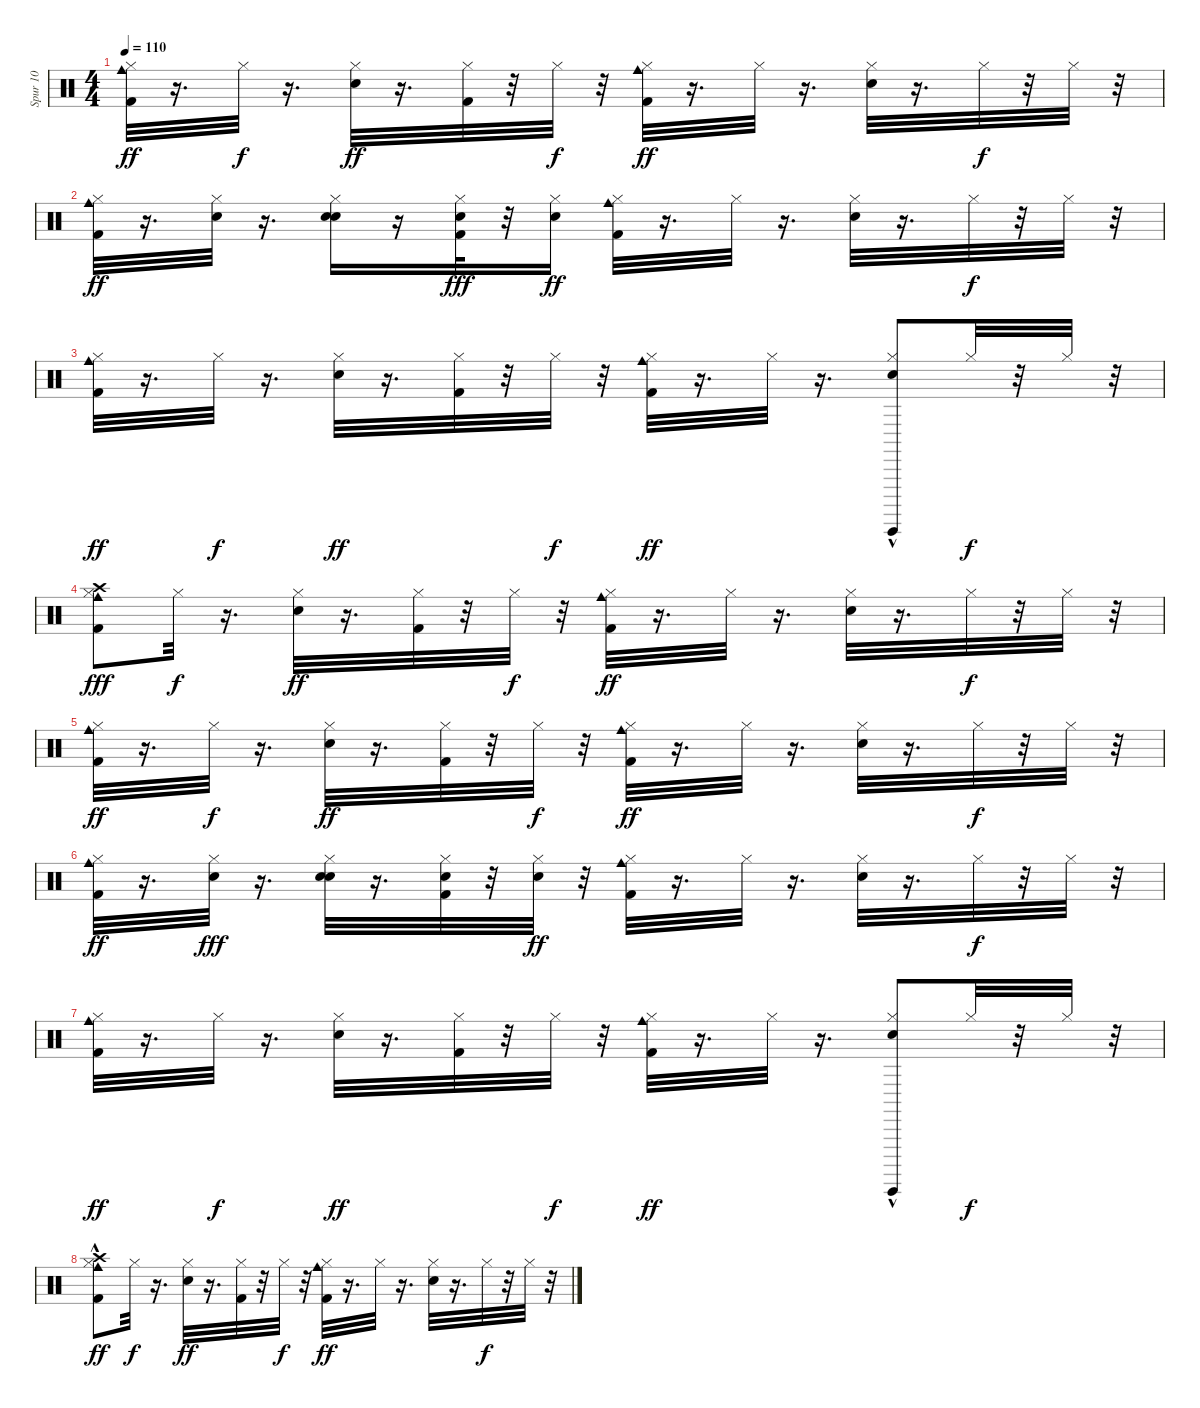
\track ("Spur 10" "Spur 10") {instrument percussion}
\staff {score}
\articulation defaults
\ts (4 4)
\tempo 110
\clef neutral
\ks c
("Kick (hit) 2" "Cowbell medium (hit)" "Hi-Hat (closed)").32{dy ff} r.16{d} "Hi-Hat (closed)".32{dy f} r.16{d} ("Snare (hit) 2" "Hi-Hat (closed)").32{dy ff} r.16{d} ("Kick (hit) 2" "Hi-Hat (closed)").32 r.32 "Hi-Hat (closed)".32{dy f} r.32 ("Kick (hit) 2" "Cowbell medium (hit)" "Hi-Hat (closed)").32{dy ff} r.16{d} "Hi-Hat (closed)".32 r.16{d} ("Snare (hit) 2" "Hi-Hat (closed)").32 r.16{d} "Hi-Hat (closed)".32{dy f} r.32 "Hi-Hat (closed)".32 r.32 |
("Kick (hit) 2" "Cowbell medium (hit)" "Hi-Hat (closed)").32{dy ff} r.16{d} ("Hi-Hat (closed)" "Hand Clap (hit)").32 r.16{d} ("Snare (hit) 2" "Hi-Hat (closed)" "Hand Clap (hit)").16 r.16 ("Kick (hit) 2" "Hi-Hat (closed)" "Hand Clap (hit)").32{dy fff} r.32 ("Hand Clap (hit)" "Hi-Hat (closed)").16{dy ff} ("Kick (hit) 2" "Cowbell medium (hit)" "Hi-Hat (closed)").32 r.16{d} "Hi-Hat (closed)".32 r.16{d} ("Snare (hit) 2" "Hi-Hat (closed)").32 r.16{d} "Hi-Hat (closed)".32{dy f} r.32 "Hi-Hat (closed)".32 r.32 |
("Kick (hit) 2" "Cowbell medium (hit)" "Hi-Hat (closed)").32{dy ff} r.16{d} "Hi-Hat (closed)".32{dy f} r.16{d} ("Snare (hit) 2" "Hi-Hat (closed)").32{dy ff} r.16{d} ("Kick (hit) 2" "Hi-Hat (closed)").32 r.32 "Hi-Hat (closed)".32{dy f} r.32 ("Kick (hit) 2" "Cowbell medium (hit)" "Hi-Hat (closed)").32{dy ff} r.16{d} "Hi-Hat (closed)".32 r.16{d} ("Snare (hit) 2" "Hi-Hat (closed)" "Guiro (hit)"{hac}).8 "Hi-Hat (closed)".32{dy f} r.32 "Hi-Hat (closed)".32 r.32 |
("Kick (hit) 2" "Cowbell medium (hit)" "Hi-Hat (closed)" "Crash high (hit)").8{dy fff} "Hi-Hat (closed)".32{dy f} r.16{d} ("Snare (hit) 2" "Hi-Hat (closed)").32{dy ff} r.16{d} ("Kick (hit) 2" "Hi-Hat (closed)").32 r.32 "Hi-Hat (closed)".32{dy f} r.32 ("Kick (hit) 2" "Cowbell medium (hit)" "Hi-Hat (closed)").32{dy ff} r.16{d} "Hi-Hat (closed)".32 r.16{d} ("Snare (hit) 2" "Hi-Hat (closed)").32 r.16{d} "Hi-Hat (closed)".32{dy f} r.32 "Hi-Hat (closed)".32 r.32 |
("Kick (hit) 2" "Cowbell medium (hit)" "Hi-Hat (closed)").32{dy ff} r.16{d} "Hi-Hat (closed)".32{dy f} r.16{d} ("Snare (hit) 2" "Hi-Hat (closed)").32{dy ff} r.16{d} ("Kick (hit) 2" "Hi-Hat (closed)").32 r.32 "Hi-Hat (closed)".32{dy f} r.32 ("Kick (hit) 2" "Cowbell medium (hit)" "Hi-Hat (closed)").32{dy ff} r.16{d} "Hi-Hat (closed)".32 r.16{d} ("Snare (hit) 2" "Hi-Hat (closed)").32 r.16{d} "Hi-Hat (closed)".32{dy f} r.32 "Hi-Hat (closed)".32 r.32 |
("Kick (hit) 2" "Cowbell medium (hit)" "Hi-Hat (closed)").32{dy ff} r.16{d} ("Hi-Hat (closed)" "Hand Clap (hit)").32{dy fff} r.16{d} ("Snare (hit) 2" "Hi-Hat (closed)" "Hand Clap (hit)").32 r.16{d} ("Kick (hit) 2" "Hi-Hat (closed)" "Hand Clap (hit)").32 r.32 ("Hand Clap (hit)" "Hi-Hat (closed)").32{dy ff} r.32 ("Kick (hit) 2" "Cowbell medium (hit)" "Hi-Hat (closed)").32 r.16{d} "Hi-Hat (closed)".32 r.16{d} ("Snare (hit) 2" "Hi-Hat (closed)").32 r.16{d} "Hi-Hat (closed)".32{dy f} r.32 "Hi-Hat (closed)".32 r.32 |
("Kick (hit) 2" "Cowbell medium (hit)" "Hi-Hat (closed)").32{dy ff} r.16{d} "Hi-Hat (closed)".32{dy f} r.16{d} ("Snare (hit) 2" "Hi-Hat (closed)").32{dy ff} r.16{d} ("Kick (hit) 2" "Hi-Hat (closed)").32 r.32 "Hi-Hat (closed)".32{dy f} r.32 ("Kick (hit) 2" "Cowbell medium (hit)" "Hi-Hat (closed)").32{dy ff} r.16{d} "Hi-Hat (closed)".32 r.16{d} ("Snare (hit) 2" "Hi-Hat (closed)" "Guiro (hit)"{hac}).8 "Hi-Hat (closed)".32{dy f} r.32 "Hi-Hat (closed)".32 r.32 |
("Kick (hit) 2" "Cowbell medium (hit)" "Hi-Hat (closed)" "Crash high (hit)"{hac}).8{dy ff} "Hi-Hat (closed)".32{dy f} r.16{d} ("Snare (hit) 2" "Hi-Hat (closed)").32{dy ff} r.16{d} ("Kick (hit) 2" "Hi-Hat (closed)").32 r.32 "Hi-Hat (closed)".32{dy f} r.32 ("Kick (hit) 2" "Cowbell medium (hit)" "Hi-Hat (closed)").32{dy ff} r.16{d} "Hi-Hat (closed)".32 r.16{d} ("Snare (hit) 2" "Hi-Hat (closed)").32 r.16{d} "Hi-Hat (closed)".32{dy f} r.32 "Hi-Hat (closed)".32 r.32
